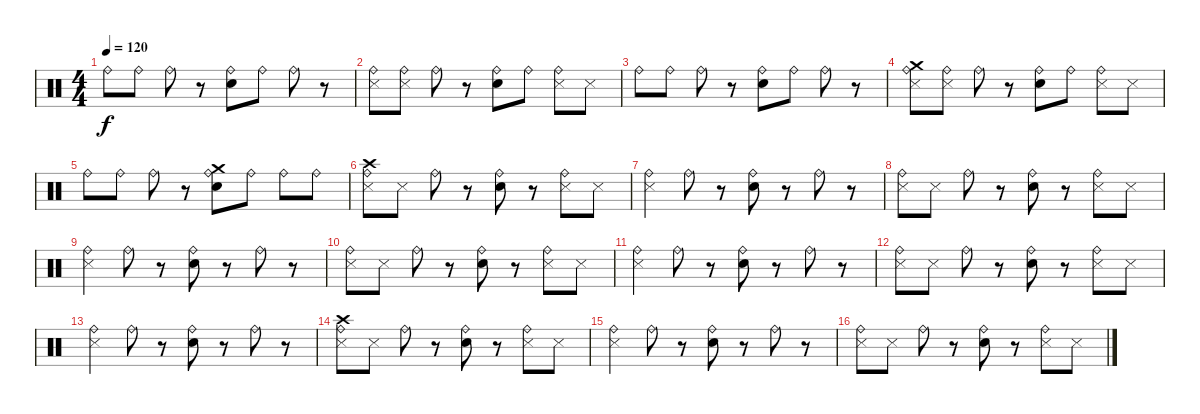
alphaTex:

\track "" {instrument percussion}
\staff {score}
\articulation defaults
\ts (4 4)
\tempo 120
\clef neutral
\ks c "Ride (bell)".8{dy f} "Ride (bell)".8 "Ride (bell)".8
r.8 ("Electric Snare (hit)" "Ride (bell)").8 "Ride (bell)".8 "Ride (bell)".8 r.8 |
("Metronome (hit)" "Ride (bell)").8 ("Metronome (hit)" "Ride (bell)").8 "Ride (bell)".8 r.8 ("Electric Snare (hit)" "Ride (bell)").8 "Ride (bell)".8 ("Metronome (hit)" "Ride (bell)").8 "Metronome (hit)".8 |
"Ride (bell)".8 "Ride (bell)".8 "Ride (bell)".8 r.8 ("Electric Snare (hit)" "Ride (bell)").8 "Ride (bell)".8 "Ride (bell)".8 r.8 |
("Metronome (hit)" "Crash medium (hit)" "Ride (bell)").8 ("Metronome (hit)" "Ride (bell)").8 "Ride (bell)".8 r.8 ("Electric Snare (hit)" "Ride (bell)").8 "Ride (bell)".8 ("Metronome (hit)" "Ride (bell)").8 "Metronome (hit)".8 |
"Ride (bell)".8 "Ride (bell)".8 "Ride (bell)".8 r.8 ("Electric Snare (hit)" "Ride (bell)" "Crash medium (hit)").8 "Ride (bell)".8 "Ride (bell)".8 "Ride (bell)".8 |
("Metronome (hit)" "Crash high (hit)" "Ride (bell)").8 "Metronome (hit)".8 "Ride (bell)".8 r.8 ("Electric Snare (hit)" "Ride (bell)").8 r.8 ("Metronome (hit)" "Ride (bell)").8 "Metronome (hit)".8 |
("Metronome (hit)" "Ride (bell)").4 "Ride (bell)".8 r.8 ("Electric Snare (hit)" "Ride (bell)").8 r.8 "Ride (bell)".8 r.8 |
("Metronome (hit)" "Ride (bell)").8 "Metronome (hit)".8 "Ride (bell)".8 r.8 ("Electric Snare (hit)" "Ride (bell)").8 r.8 ("Metronome (hit)" "Ride (bell)").8 "Metronome (hit)".8 |
("Metronome (hit)" "Ride (bell)").4 "Ride (bell)".8 r.8 ("Electric Snare (hit)" "Ride (bell)").8 r.8 "Ride (bell)".8 r.8 |
("Metronome (hit)" "Ride (bell)").8 "Metronome (hit)".8 "Ride (bell)".8 r.8 ("Electric Snare (hit)" "Ride (bell)").8 r.8 ("Metronome (hit)" "Ride (bell)").8 "Metronome (hit)".8 |
("Metronome (hit)" "Ride (bell)").4 "Ride (bell)".8 r.8 ("Electric Snare (hit)" "Ride (bell)").8 r.8 "Ride (bell)".8 r.8 |
("Metronome (hit)" "Ride (bell)").8 "Metronome (hit)".8 "Ride (bell)".8 r.8 ("Electric Snare (hit)" "Ride (bell)").8 r.8 ("Metronome (hit)" "Ride (bell)").8 "Metronome (hit)".8 |
("Metronome (hit)" "Ride (bell)").4 "Ride (bell)".8 r.8 ("Electric Snare (hit)" "Ride (bell)").8 r.8 "Ride (bell)".8 r.8 |
("Metronome (hit)" "Ride (bell)" "Crash high (hit)").8 "Metronome (hit)".8 "Ride (bell)".8 r.8 ("Electric Snare (hit)" "Ride (bell)").8 r.8 ("Metronome (hit)" "Ride (bell)").8 "Metronome (hit)".8 |
("Metronome (hit)" "Ride (bell)").4 "Ride (bell)".8 r.8 ("Electric Snare (hit)" "Ride (bell)").8 r.8 "Ride (bell)".8 r.8 |
("Metronome (hit)" "Ride (bell)").8 "Metronome (hit)".8 "Ride (bell)".8 r.8 ("Electric Snare (hit)" "Ride (bell)").8 r.8 ("Metronome (hit)" "Ride (bell)").8 "Metronome (hit)".8
